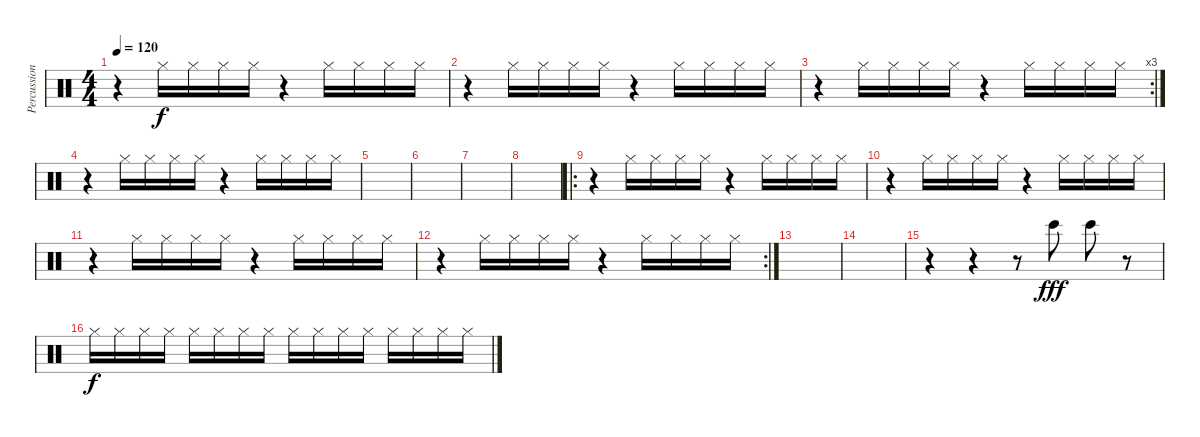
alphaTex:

\track ("Percussion" "Percussion") {instrument percussion}
\staff {score}
\articulation defaults
\ts (4 4)
\tempo 120
\clef neutral
\ks c
r.4{dy f} "Hi-Hat (closed)".16 "Hi-Hat (closed)".16 "Hi-Hat (closed)".16 "Hi-Hat (closed)".16 r.4 "Hi-Hat (closed)".16 "Hi-Hat (closed)".16 "Hi-Hat (closed)".16 "Hi-Hat (closed)".16 |
r.4 "Hi-Hat (closed)".16 "Hi-Hat (closed)".16 "Hi-Hat (closed)".16 "Hi-Hat (closed)".16 r.4 "Hi-Hat (closed)".16 "Hi-Hat (closed)".16 "Hi-Hat (closed)".16 "Hi-Hat (closed)".16 |
\rc 3
r.4 "Hi-Hat (closed)".16 "Hi-Hat (closed)".16 "Hi-Hat (closed)".16 "Hi-Hat (closed)".16 r.4 "Hi-Hat (closed)".16 "Hi-Hat (closed)".16 "Hi-Hat (closed)".16 "Hi-Hat (closed)".16 |
r.4 "Hi-Hat (closed)".16 "Hi-Hat (closed)".16 "Hi-Hat (closed)".16 "Hi-Hat (closed)".16 r.4 "Hi-Hat (closed)".16 "Hi-Hat (closed)".16 "Hi-Hat (closed)".16 "Hi-Hat (closed)".16 |
|
|
|
|
\ro
r.4 "Hi-Hat (closed)".16 "Hi-Hat (closed)".16 "Hi-Hat (closed)".16 "Hi-Hat (closed)".16 r.4 "Hi-Hat (closed)".16 "Hi-Hat (closed)".16 "Hi-Hat (closed)".16 "Hi-Hat (closed)".16 |
r.4 "Hi-Hat (closed)".16 "Hi-Hat (closed)".16 "Hi-Hat (closed)".16 "Hi-Hat (closed)".16 r.4 "Hi-Hat (closed)".16 "Hi-Hat (closed)".16 "Hi-Hat (closed)".16 "Hi-Hat (closed)".16 |
r.4 "Hi-Hat (closed)".16 "Hi-Hat (closed)".16 "Hi-Hat (closed)".16 "Hi-Hat (closed)".16 r.4 "Hi-Hat (closed)".16 "Hi-Hat (closed)".16 "Hi-Hat (closed)".16 "Hi-Hat (closed)".16 |
\rc 2
r.4 "Hi-Hat (closed)".16 "Hi-Hat (closed)".16 "Hi-Hat (closed)".16 "Hi-Hat (closed)".16 r.4 "Hi-Hat (closed)".16 "Hi-Hat (closed)".16 "Hi-Hat (closed)".16 "Hi-Hat (closed)".16 |
|
|
r.4 r.4 r.8 "Bongo High (hit)".8{dy fff} "Bongo High (hit)".8 r.8 |
"Hi-Hat (closed)".16{dy f} "Hi-Hat (closed)".16 "Hi-Hat (closed)".16 "Hi-Hat (closed)".16 "Hi-Hat (closed)".16 "Hi-Hat (closed)".16 "Hi-Hat (closed)".16 "Hi-Hat (closed)".16 "Hi-Hat (closed)".16 "Hi-Hat (closed)".16 "Hi-Hat (closed)".16 "Hi-Hat (closed)".16 "Hi-Hat (closed)".16 "Hi-Hat (closed)".16 "Hi-Hat (closed)".16 "Hi-Hat (closed)".16
